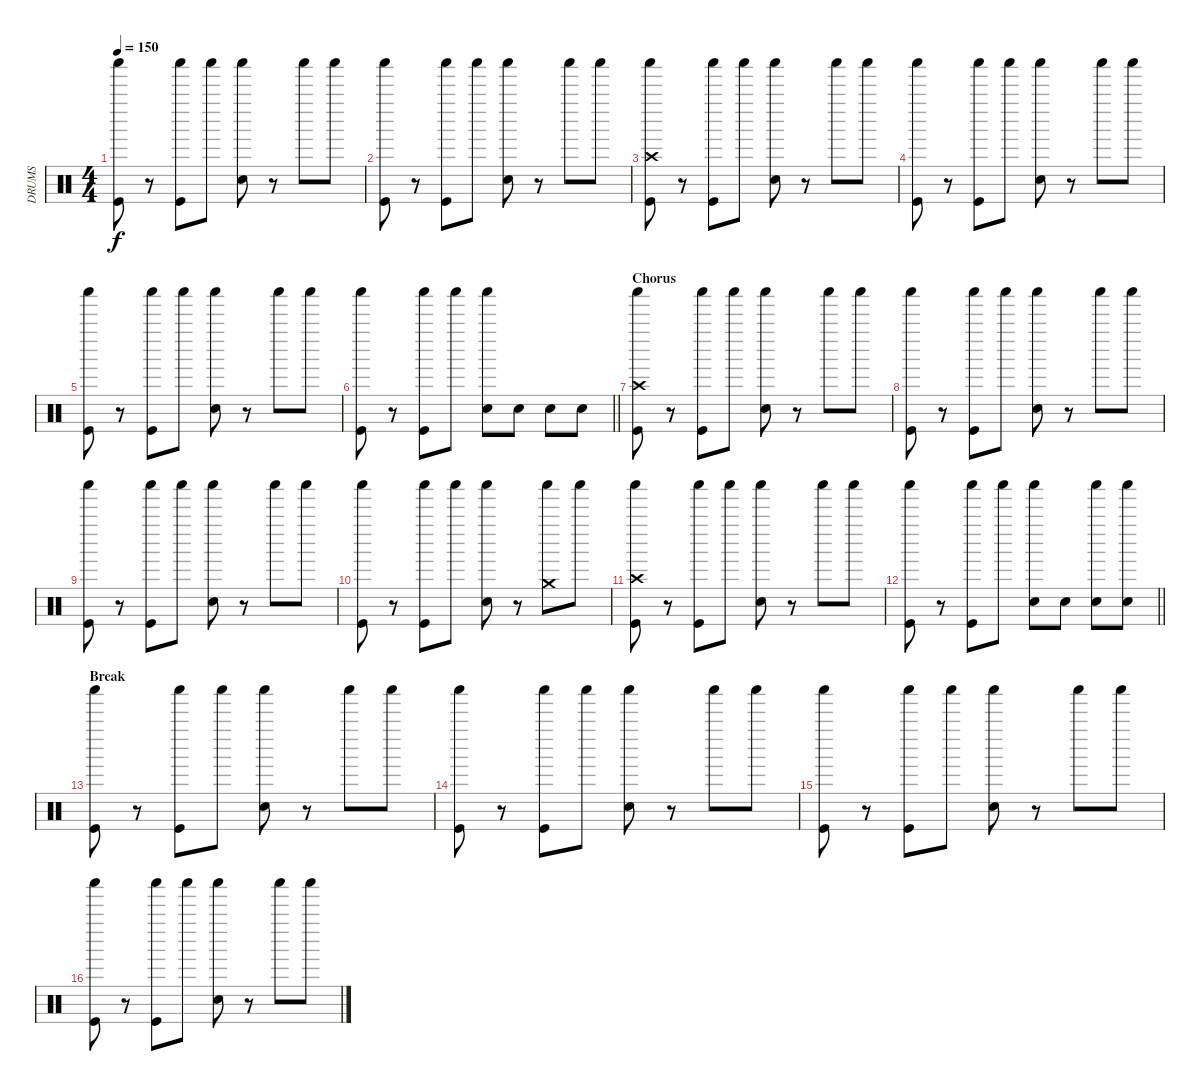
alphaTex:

\track ("DRUMS" "DRUMS") {instrument percussion}
\staff {score}
\articulation defaults
\ts (4 4)
\tempo 150
\clef neutral
\ks c
("Shaker (hit)" "Kick (hit)").8{dy f} r.8 ("Shaker (hit)" "Kick (hit)").8 "Shaker (hit)".8 ("Shaker (hit)" "Snare (hit) 2").8 r.8 "Shaker (hit)".8 "Shaker (hit)".8 |
("Shaker (hit)" "Kick (hit)").8 r.8 ("Shaker (hit)" "Kick (hit)").8 "Shaker (hit)".8 ("Shaker (hit)" "Snare (hit) 2").8 r.8 "Shaker (hit)".8 "Shaker (hit)".8 |
("Shaker (hit)" "Crash high (hit)" "Kick (hit)").8 r.8 ("Shaker (hit)" "Kick (hit)").8 "Shaker (hit)".8 ("Shaker (hit)" "Snare (hit) 2").8 r.8 "Shaker (hit)".8 "Shaker (hit)".8 |
("Shaker (hit)" "Kick (hit)").8 r.8 ("Shaker (hit)" "Kick (hit)").8 "Shaker (hit)".8 ("Shaker (hit)" "Snare (hit) 2").8 r.8 "Shaker (hit)".8 "Shaker (hit)".8 |
("Shaker (hit)" "Kick (hit)").8 r.8 ("Shaker (hit)" "Kick (hit)").8 "Shaker (hit)".8 ("Shaker (hit)" "Snare (hit) 2").8 r.8 "Shaker (hit)".8 "Shaker (hit)".8 |
\barLineRight lightlight
("Shaker (hit)" "Kick (hit)").8 r.8 ("Shaker (hit)" "Kick (hit)").8 "Shaker (hit)".8 ("Shaker (hit)" "Snare (hit) 2").8 "Snare (hit) 2".8 "Snare (hit) 2".8 "Snare (hit) 2".8 |
\section ("" "Chorus")
("Shaker (hit)" "Crash high (hit)" "Kick (hit)").8 r.8 ("Shaker (hit)" "Kick (hit)").8 "Shaker (hit)".8 ("Shaker (hit)" "Snare (hit) 2").8 r.8 "Shaker (hit)".8 "Shaker (hit)".8 |
("Shaker (hit)" "Kick (hit)").8 r.8 ("Shaker (hit)" "Kick (hit)").8 "Shaker (hit)".8 ("Shaker (hit)" "Snare (hit) 2").8 r.8 "Shaker (hit)".8 "Shaker (hit)".8 |
("Shaker (hit)" "Kick (hit)").8 r.8 ("Shaker (hit)" "Kick (hit)").8 "Shaker (hit)".8 ("Shaker (hit)" "Snare (hit) 2").8 r.8 "Shaker (hit)".8 "Shaker (hit)".8 |
("Shaker (hit)" "Kick (hit)").8 r.8 ("Shaker (hit)" "Kick (hit)").8 "Shaker (hit)".8 ("Shaker (hit)" "Snare (hit) 2").8 r.8 ("Shaker (hit)" "Crash medium (hit)").8 "Shaker (hit)".8 |
("Shaker (hit)" "Crash high (hit)" "Kick (hit)").8 r.8 ("Shaker (hit)" "Kick (hit)").8 "Shaker (hit)".8 ("Shaker (hit)" "Snare (hit) 2").8 r.8 "Shaker (hit)".8 "Shaker (hit)".8 |
\barLineRight lightlight
("Shaker (hit)" "Kick (hit)").8 r.8 ("Shaker (hit)" "Kick (hit)").8 "Shaker (hit)".8 ("Shaker (hit)" "Snare (hit) 2").8 "Snare (hit) 2".8 ("Shaker (hit)" "Snare (hit) 2").8 ("Shaker (hit)" "Snare (hit) 2").8 |
\section ("" "Break")
("Shaker (hit)" "Kick (hit)").8 r.8 ("Shaker (hit)" "Kick (hit)").8 "Shaker (hit)".8 ("Shaker (hit)" "Snare (hit) 2").8 r.8 "Shaker (hit)".8 "Shaker (hit)".8 |
("Shaker (hit)" "Kick (hit)").8 r.8 ("Shaker (hit)" "Kick (hit)").8 "Shaker (hit)".8 ("Shaker (hit)" "Snare (hit) 2").8 r.8 "Shaker (hit)".8 "Shaker (hit)".8 |
("Shaker (hit)" "Kick (hit)").8 r.8 ("Shaker (hit)" "Kick (hit)").8 "Shaker (hit)".8 ("Shaker (hit)" "Snare (hit) 2").8 r.8 "Shaker (hit)".8 "Shaker (hit)".8 |
("Shaker (hit)" "Kick (hit)").8 r.8 ("Shaker (hit)" "Kick (hit)").8 "Shaker (hit)".8 ("Shaker (hit)" "Snare (hit) 2").8 r.8 "Shaker (hit)".8 "Shaker (hit)".8
